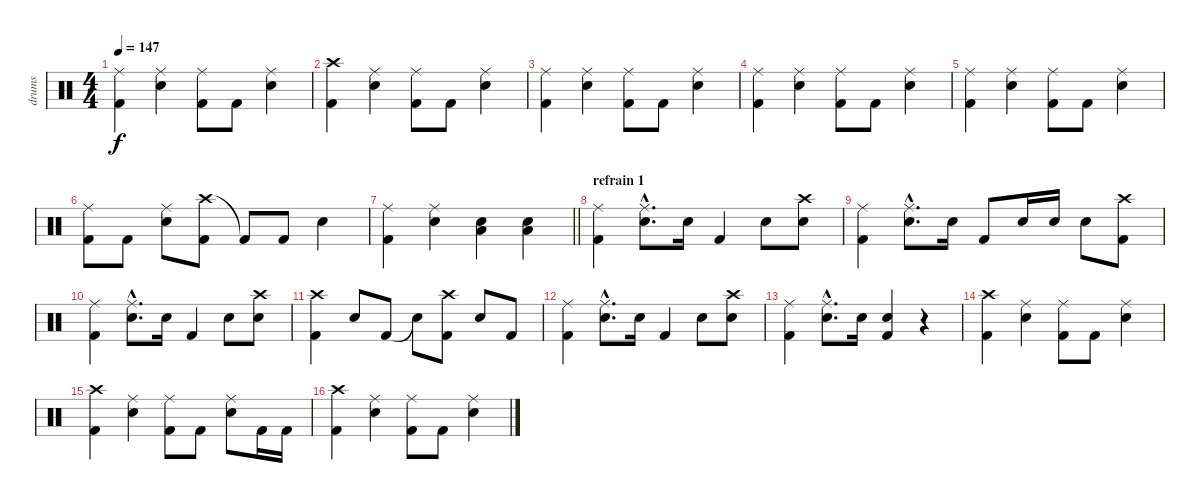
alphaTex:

\track ("drums" "drums") {instrument percussion}
\staff {score}
\articulation defaults
\ts (4 4)
\tempo 147
\clef neutral
\ks c
("Ride (middle)" "Kick (hit) 2").4{dy f} ("Ride (middle)" "Snare (hit) 2").4 ("Ride (middle)" "Kick (hit) 2").8 "Kick (hit) 2".8 ("Ride (middle)" "Snare (hit) 2").4 |
("Crash high (hit)" "Kick (hit) 2").4 ("Ride (middle)" "Snare (hit) 2").4 ("Ride (middle)" "Kick (hit) 2").8 "Kick (hit) 2".8 ("Ride (middle)" "Snare (hit) 2").4 |
("Ride (middle)" "Kick (hit) 2").4 ("Ride (middle)" "Snare (hit) 2").4 ("Ride (middle)" "Kick (hit) 2").8 "Kick (hit) 2".8 ("Ride (middle)" "Snare (hit) 2").4 |
("Ride (middle)" "Kick (hit) 2").4 ("Ride (middle)" "Snare (hit) 2").4 ("Ride (middle)" "Kick (hit) 2").8 "Kick (hit) 2".8 ("Ride (middle)" "Snare (hit) 2").4 |
("Ride (middle)" "Kick (hit) 2").4 ("Ride (middle)" "Snare (hit) 2").4 ("Ride (middle)" "Kick (hit) 2").8 "Kick (hit) 2".8 ("Ride (middle)" "Snare (hit) 2").4 |
("Ride (middle)" "Kick (hit) 2").8 "Kick (hit) 2".8 ("Ride (middle)" "Snare (hit) 2").8 ("Crash high (hit)" "Kick (hit) 2").8 "Kick (hit) 2"{t}.8 "Kick (hit) 2".8 "Snare (hit) 2".4 |
\barLineRight lightlight
("Ride (middle)" "Kick (hit) 2").4 ("Ride (middle)" "Snare (hit) 2").4 ("Low Floor Tom (hit)" "Snare (hit) 2").4 ("Low Floor Tom (hit)" "Snare (hit) 2").4 |
\section ("" "refrain 1")
("Ride (middle)" "Kick (hit) 2").4 ("Ride (middle)"{hac} "Snare (hit) 2"{hac}).8{d} "Snare (hit) 2".16 "Kick (hit) 2".4 "Snare (hit) 2".8 ("Crash high (hit)" "Snare (hit) 2").8 |
("Ride (middle)" "Kick (hit) 2").4 ("Ride (middle)"{hac} "Snare (hit) 2"{hac}).8{d} "Snare (hit) 2".16 "Kick (hit) 2".8 "Snare (hit) 2".16 "Snare (hit) 2".16 "Snare (hit) 2".8 ("Crash high (hit)" "Kick (hit) 2").8 |
("Ride (middle)" "Kick (hit) 2").4 ("Ride (middle)"{hac} "Snare (hit) 2"{hac}).8{d} "Snare (hit) 2".16 "Kick (hit) 2".4 "Snare (hit) 2".8 ("Crash high (hit)" "Snare (hit) 2").8 |
("Crash high (hit)" "Kick (hit) 2").4 "Snare (hit) 2".8 "Kick (hit) 2".8 "Snare (hit)"{t}.8 ("Crash high (hit)" "Kick (hit) 2").8 "Snare (hit) 2".8 "Kick (hit) 2".8 |
("Ride (middle)" "Kick (hit) 2").4 ("Ride (middle)"{hac} "Snare (hit) 2"{hac}).8{d} "Snare (hit) 2".16 "Kick (hit) 2".4 "Snare (hit) 2".8 ("Crash high (hit)" "Snare (hit) 2").8 |
("Ride (middle)" "Kick (hit) 2").4 ("Ride (middle)"{hac} "Snare (hit) 2"{hac}).8{d} "Snare (hit) 2".16 ("Snare (hit) 2" "Kick (hit) 2").4 r.4 |
("Crash high (hit)" "Kick (hit) 2").4 ("Ride (middle)" "Snare (hit) 2").4 ("Ride (middle)" "Kick (hit) 2").8 "Kick (hit) 2".8 ("Ride (middle)" "Snare (hit) 2").4 |
("Crash high (hit)" "Kick (hit) 2").4 ("Ride (middle)" "Snare (hit) 2").4 ("Ride (middle)" "Kick (hit) 2").8 "Kick (hit) 2".8 ("Ride (middle)" "Snare (hit) 2").8 "Kick (hit) 2".16 "Kick (hit) 2".16 |
("Crash high (hit)" "Kick (hit) 2").4 ("Ride (middle)" "Snare (hit) 2").4 ("Ride (middle)" "Kick (hit) 2").8 "Kick (hit) 2".8 ("Ride (middle)" "Snare (hit) 2").4
